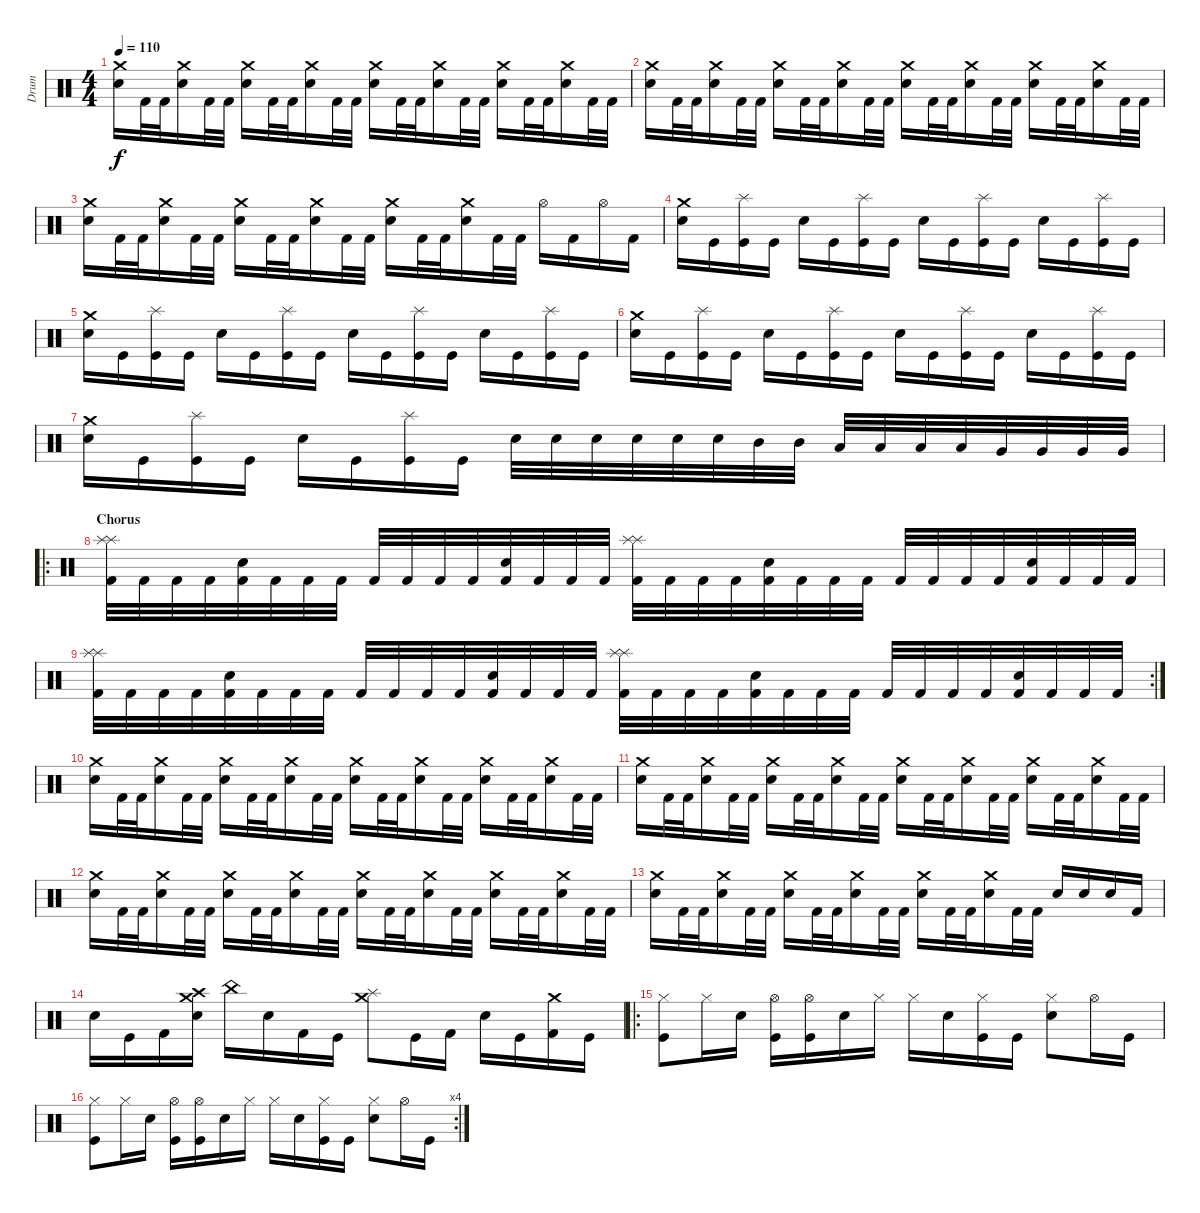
\track ("Drum" "Drum") {instrument percussion}
\staff {score}
\articulation defaults
\ts (4 4)
\tempo 110
\clef neutral
\ks c
("Crash medium (hit)" "Snare (hit) 2").16{dy f} "Kick (hit) 2".32 "Kick (hit) 2".32 ("Crash medium (hit)" "Snare (hit) 2").16 "Kick (hit) 2".32 "Kick (hit) 2".32 ("Crash medium (hit)" "Snare (hit) 2").16 "Kick (hit) 2".32 "Kick (hit) 2".32 ("Crash medium (hit)" "Snare (hit) 2").16 "Kick (hit) 2".32 "Kick (hit) 2".32 ("Crash medium (hit)" "Snare (hit) 2").16 "Kick (hit) 2".32 "Kick (hit) 2".32 ("Crash medium (hit)" "Snare (hit) 2").16 "Kick (hit) 2".32 "Kick (hit) 2".32 ("Crash medium (hit)" "Snare (hit) 2").16 "Kick (hit) 2".32 "Kick (hit) 2".32 ("Crash medium (hit)" "Snare (hit) 2").16 "Kick (hit) 2".32 "Kick (hit) 2".32 |
("Crash medium (hit)" "Snare (hit) 2").16 "Kick (hit) 2".32 "Kick (hit) 2".32 ("Crash medium (hit)" "Snare (hit) 2").16 "Kick (hit) 2".32 "Kick (hit) 2".32 ("Crash medium (hit)" "Snare (hit) 2").16 "Kick (hit) 2".32 "Kick (hit) 2".32 ("Crash medium (hit)" "Snare (hit) 2").16 "Kick (hit) 2".32 "Kick (hit) 2".32 ("Crash medium (hit)" "Snare (hit) 2").16 "Kick (hit) 2".32 "Kick (hit) 2".32 ("Crash medium (hit)" "Snare (hit) 2").16 "Kick (hit) 2".32 "Kick (hit) 2".32 ("Crash medium (hit)" "Snare (hit) 2").16 "Kick (hit) 2".32 "Kick (hit) 2".32 ("Crash medium (hit)" "Snare (hit) 2").16 "Kick (hit) 2".32 "Kick (hit) 2".32 |
("Crash medium (hit)" "Snare (hit) 2").16 "Kick (hit) 2".32 "Kick (hit) 2".32 ("Crash medium (hit)" "Snare (hit) 2").16 "Kick (hit) 2".32 "Kick (hit) 2".32 ("Crash medium (hit)" "Snare (hit) 2").16 "Kick (hit) 2".32 "Kick (hit) 2".32 ("Crash medium (hit)" "Snare (hit) 2").16 "Kick (hit) 2".32 "Kick (hit) 2".32 ("Crash medium (hit)" "Snare (hit) 2").16 "Kick (hit) 2".32 "Kick (hit) 2".32 ("Crash medium (hit)" "Snare (hit) 2").16 "Kick (hit) 2".32 "Kick (hit) 2".32 "Hi-Hat (open)".16 "Kick (hit) 2".16 "Hi-Hat (open)".16 "Kick (hit) 2".16 |
("Crash medium (hit)" "Snare (hit) 2").16 "Kick (hit)".16 ("Splash (hit)" "Kick (hit)").16 "Kick (hit)".16 "Snare (hit) 2".16 "Kick (hit)".16 ("Splash (hit)" "Kick (hit)").16 "Kick (hit)".16 "Snare (hit) 2".16 "Kick (hit)".16 ("Splash (hit)" "Kick (hit)").16 "Kick (hit)".16 "Snare (hit) 2".16 "Kick (hit)".16 ("Splash (hit)" "Kick (hit)").16 "Kick (hit)".16 |
("Crash medium (hit)" "Snare (hit) 2").16 "Kick (hit)".16 ("Splash (hit)" "Kick (hit)").16 "Kick (hit)".16 "Snare (hit) 2".16 "Kick (hit)".16 ("Splash (hit)" "Kick (hit)").16 "Kick (hit)".16 "Snare (hit) 2".16 "Kick (hit)".16 ("Splash (hit)" "Kick (hit)").16 "Kick (hit)".16 "Snare (hit) 2".16 "Kick (hit)".16 ("Splash (hit)" "Kick (hit)").16 "Kick (hit)".16 |
("Crash medium (hit)" "Snare (hit) 2").16 "Kick (hit)".16 ("Splash (hit)" "Kick (hit)").16 "Kick (hit)".16 "Snare (hit) 2".16 "Kick (hit)".16 ("Splash (hit)" "Kick (hit)").16 "Kick (hit)".16 "Snare (hit) 2".16 "Kick (hit)".16 ("Splash (hit)" "Kick (hit)").16 "Kick (hit)".16 "Snare (hit) 2".16 "Kick (hit)".16 ("Splash (hit)" "Kick (hit)").16 "Kick (hit)".16 |
("Crash medium (hit)" "Snare (hit) 2").16 "Kick (hit)".16 ("Splash (hit)" "Kick (hit)").16 "Kick (hit)".16 "Snare (hit) 2".16 "Kick (hit)".16 ("Splash (hit)" "Kick (hit)").16 "Kick (hit)".16 "Electric Snare (hit)".32 "Electric Snare (hit)".32 "Snare (hit) 2".32 "Snare (hit) 2".32 "Electric Snare (hit)".32 "Electric Snare (hit)".32 "Mid Tom (hit)".32 "Mid Tom (hit)".32 "Low Tom (hit)".32 "Low Tom (hit)".32 "Low Tom (hit)".32 "Low Tom (hit)".32 "Very Low Tom (hit)".32 "Very Low Tom (hit)".32 "Very Low Tom (hit)".32 "Very Low Tom (hit)".32 |
\ro
\section ("" "Chorus")
("Kick (hit) 2" "Splash (hit)" "Splash (hit)").32 "Kick (hit) 2".32 "Kick (hit) 2".32 "Kick (hit) 2".32 ("Kick (hit) 2" "Electric Snare (hit)").32 "Kick (hit) 2".32 "Kick (hit) 2".32 "Kick (hit) 2".32 "Kick (hit) 2".32 "Kick (hit) 2".32 "Kick (hit) 2".32 "Kick (hit) 2".32 ("Kick (hit) 2" "Electric Snare (hit)").32 "Kick (hit) 2".32 "Kick (hit) 2".32 "Kick (hit) 2".32 ("Kick (hit) 2" "Splash (hit)" "Splash (hit)").32 "Kick (hit) 2".32 "Kick (hit) 2".32 "Kick (hit) 2".32 ("Kick (hit) 2" "Electric Snare (hit)").32 "Kick (hit) 2".32 "Kick (hit) 2".32 "Kick (hit) 2".32 "Kick (hit) 2".32 "Kick (hit) 2".32 "Kick (hit) 2".32 "Kick (hit) 2".32 ("Kick (hit) 2" "Electric Snare (hit)").32 "Kick (hit) 2".32 "Kick (hit) 2".32 "Kick (hit) 2".32 |
\rc 2
("Kick (hit) 2" "Splash (hit)" "Splash (hit)").32 "Kick (hit) 2".32 "Kick (hit) 2".32 "Kick (hit) 2".32 ("Kick (hit) 2" "Electric Snare (hit)").32 "Kick (hit) 2".32 "Kick (hit) 2".32 "Kick (hit) 2".32 "Kick (hit) 2".32 "Kick (hit) 2".32 "Kick (hit) 2".32 "Kick (hit) 2".32 ("Kick (hit) 2" "Electric Snare (hit)").32 "Kick (hit) 2".32 "Kick (hit) 2".32 "Kick (hit) 2".32 ("Kick (hit) 2" "Splash (hit)" "Splash (hit)").32 "Kick (hit) 2".32 "Kick (hit) 2".32 "Kick (hit) 2".32 ("Kick (hit) 2" "Electric Snare (hit)").32 "Kick (hit) 2".32 "Kick (hit) 2".32 "Kick (hit) 2".32 "Kick (hit) 2".32 "Kick (hit) 2".32 "Kick (hit) 2".32 "Kick (hit) 2".32 ("Kick (hit) 2" "Electric Snare (hit)").32 "Kick (hit) 2".32 "Kick (hit) 2".32 "Kick (hit) 2".32 |
("Crash medium (hit)" "Snare (hit) 2").16 "Kick (hit) 2".32 "Kick (hit) 2".32 ("Crash medium (hit)" "Snare (hit) 2").16 "Kick (hit) 2".32 "Kick (hit) 2".32 ("Crash medium (hit)" "Snare (hit) 2").16 "Kick (hit) 2".32 "Kick (hit) 2".32 ("Crash medium (hit)" "Snare (hit) 2").16 "Kick (hit) 2".32 "Kick (hit) 2".32 ("Crash medium (hit)" "Snare (hit) 2").16 "Kick (hit) 2".32 "Kick (hit) 2".32 ("Crash medium (hit)" "Snare (hit) 2").16 "Kick (hit) 2".32 "Kick (hit) 2".32 ("Crash medium (hit)" "Snare (hit) 2").16 "Kick (hit) 2".32 "Kick (hit) 2".32 ("Crash medium (hit)" "Snare (hit) 2").16 "Kick (hit) 2".32 "Kick (hit) 2".32 |
("Crash medium (hit)" "Snare (hit) 2").16 "Kick (hit) 2".32 "Kick (hit) 2".32 ("Crash medium (hit)" "Snare (hit) 2").16 "Kick (hit) 2".32 "Kick (hit) 2".32 ("Crash medium (hit)" "Snare (hit) 2").16 "Kick (hit) 2".32 "Kick (hit) 2".32 ("Crash medium (hit)" "Snare (hit) 2").16 "Kick (hit) 2".32 "Kick (hit) 2".32 ("Crash medium (hit)" "Snare (hit) 2").16 "Kick (hit) 2".32 "Kick (hit) 2".32 ("Crash medium (hit)" "Snare (hit) 2").16 "Kick (hit) 2".32 "Kick (hit) 2".32 ("Crash medium (hit)" "Snare (hit) 2").16 "Kick (hit) 2".32 "Kick (hit) 2".32 ("Crash medium (hit)" "Snare (hit) 2").16 "Kick (hit) 2".32 "Kick (hit) 2".32 |
("Crash medium (hit)" "Snare (hit) 2").16 "Kick (hit) 2".32 "Kick (hit) 2".32 ("Crash medium (hit)" "Snare (hit) 2").16 "Kick (hit) 2".32 "Kick (hit) 2".32 ("Crash medium (hit)" "Snare (hit) 2").16 "Kick (hit) 2".32 "Kick (hit) 2".32 ("Crash medium (hit)" "Snare (hit) 2").16 "Kick (hit) 2".32 "Kick (hit) 2".32 ("Crash medium (hit)" "Snare (hit) 2").16 "Kick (hit) 2".32 "Kick (hit) 2".32 ("Crash medium (hit)" "Snare (hit) 2").16 "Kick (hit) 2".32 "Kick (hit) 2".32 ("Crash medium (hit)" "Snare (hit) 2").16 "Kick (hit) 2".32 "Kick (hit) 2".32 ("Crash medium (hit)" "Snare (hit) 2").16 "Kick (hit) 2".32 "Kick (hit) 2".32 |
("Crash medium (hit)" "Snare (hit) 2").16 "Kick (hit) 2".32 "Kick (hit) 2".32 ("Crash medium (hit)" "Snare (hit) 2").16 "Kick (hit) 2".32 "Kick (hit) 2".32 ("Crash medium (hit)" "Snare (hit) 2").16 "Kick (hit) 2".32 "Kick (hit) 2".32 ("Crash medium (hit)" "Snare (hit) 2").16 "Kick (hit) 2".32 "Kick (hit) 2".32 ("Crash medium (hit)" "Snare (hit) 2").16 "Kick (hit) 2".32 "Kick (hit) 2".32 ("Crash medium (hit)" "Snare (hit) 2").16 "Kick (hit) 2".32 "Kick (hit) 2".32 "Electric Snare (hit)".16 "Electric Snare (hit)".16 "Snare (hit) 2".16 "Kick (hit) 2".16 |
"Snare (hit) 2".16 "Kick (hit)".16 "Kick (hit) 2".16 ("Crash medium (hit)" "Crash high (hit)" "Snare (hit) 2").16 "China (hit)".16 "Snare (hit) 2".16 "Kick (hit) 2".16 "Kick (hit)".16 ("Crash medium (hit)" "Splash (hit)").8 "Kick (hit)".16 "Kick (hit) 2".16 "Snare (hit) 2".16 "Kick (hit)".16 ("Crash medium (hit)" "Kick (hit) 2").16 "Kick (hit)".16 |
\ro
("Hi-Hat (closed)" "Kick (hit)").8 "Hi-Hat (closed)".16 "Electric Snare (hit)".16 ("Hi-Hat (open)" "Kick (hit)").16 ("Hi-Hat (open)" "Kick (hit)").16 "Electric Snare (hit)".16 "Hi-Hat (closed)".16 "Hi-Hat (closed)".16 "Electric Snare (hit)".16 ("Hi-Hat (closed)" "Kick (hit)").16 "Kick (hit)".16 ("Hi-Hat (closed)" "Electric Snare (hit)").8 "Hi-Hat (open)".16 "Kick (hit)".16 |
\rc 4
("Hi-Hat (closed)" "Kick (hit)").8 "Hi-Hat (closed)".16 "Electric Snare (hit)".16 ("Hi-Hat (open)" "Kick (hit)").16 ("Hi-Hat (open)" "Kick (hit)").16 "Electric Snare (hit)".16 "Hi-Hat (closed)".16 "Hi-Hat (closed)".16 "Electric Snare (hit)".16 ("Hi-Hat (closed)" "Kick (hit)").16 "Kick (hit)".16 ("Hi-Hat (closed)" "Electric Snare (hit)").8 "Hi-Hat (open)".16 "Kick (hit)".16
